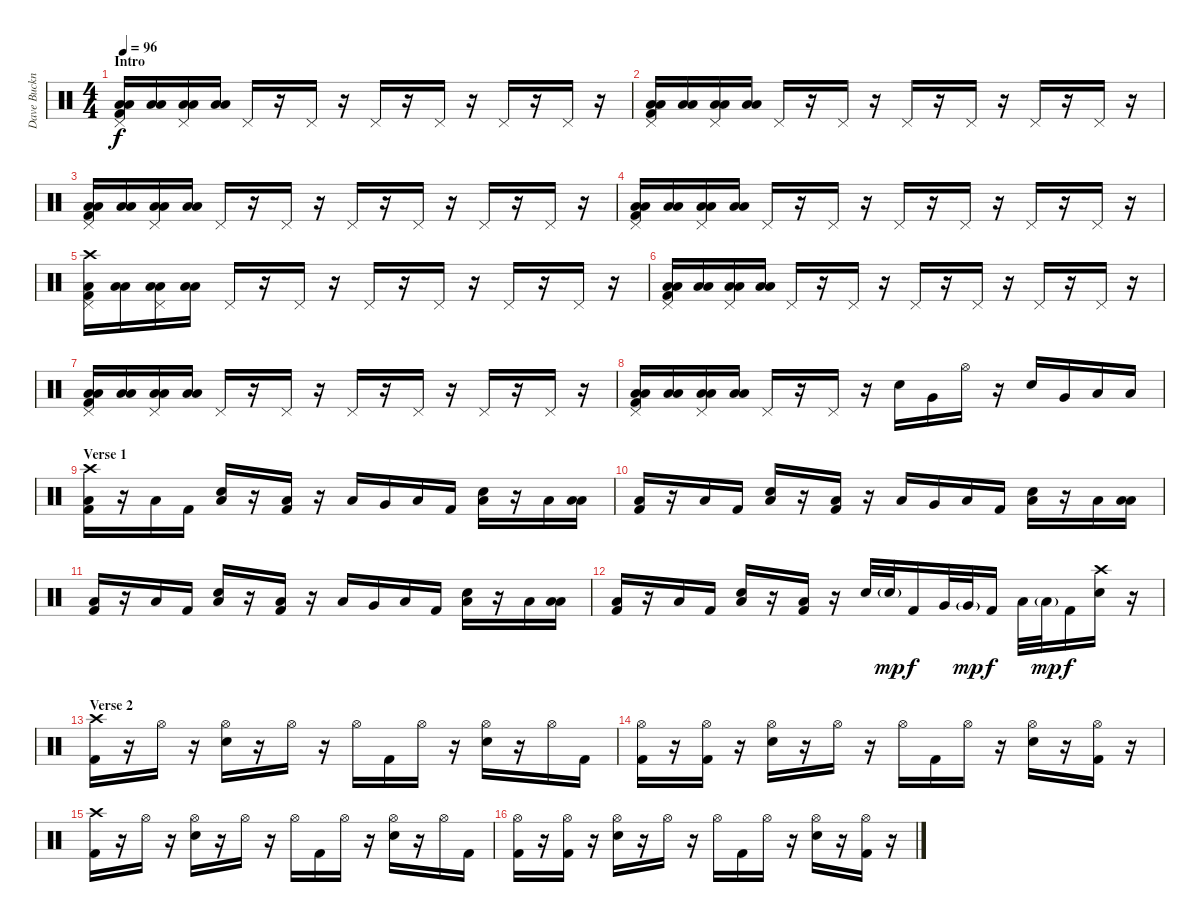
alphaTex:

\track ("Dave Buckner" "Dave Buckn") {instrument percussion}
\staff {score}
\articulation defaults
\ts (4 4)
\section ("" "Intro")
\tempo 96
\clef neutral
\ks c
("Low Tom (hit)" "Pedal Hi-Hat (hit)" "Low Floor Tom (hit)" "Kick (hit) 2").16{dy f} ("Low Tom (hit)" "Low Floor Tom (hit)").16 ("Low Tom (hit)" "Pedal Hi-Hat (hit)" "Low Floor Tom (hit)").16 ("Low Tom (hit)" "Low Floor Tom (hit)").16 "Pedal Hi-Hat (hit)".16 r.16 "Pedal Hi-Hat (hit)".16 r.16 "Pedal Hi-Hat (hit)".16 r.16 "Pedal Hi-Hat (hit)".16 r.16 "Pedal Hi-Hat (hit)".16 r.16 "Pedal Hi-Hat (hit)".16 r.16 |
("Low Tom (hit)" "Pedal Hi-Hat (hit)" "Low Floor Tom (hit)" "Kick (hit) 2").16 ("Low Tom (hit)" "Low Floor Tom (hit)").16 ("Low Tom (hit)" "Pedal Hi-Hat (hit)" "Low Floor Tom (hit)").16 ("Low Tom (hit)" "Low Floor Tom (hit)").16 "Pedal Hi-Hat (hit)".16 r.16 "Pedal Hi-Hat (hit)".16 r.16 "Pedal Hi-Hat (hit)".16 r.16 "Pedal Hi-Hat (hit)".16 r.16 "Pedal Hi-Hat (hit)".16 r.16 "Pedal Hi-Hat (hit)".16 r.16 |
("Low Tom (hit)" "Pedal Hi-Hat (hit)" "Low Floor Tom (hit)" "Kick (hit) 2").16 ("Low Tom (hit)" "Low Floor Tom (hit)").16 ("Low Tom (hit)" "Pedal Hi-Hat (hit)" "Low Floor Tom (hit)").16 ("Low Tom (hit)" "Low Floor Tom (hit)").16 "Pedal Hi-Hat (hit)".16 r.16 "Pedal Hi-Hat (hit)".16 r.16 "Pedal Hi-Hat (hit)".16 r.16 "Pedal Hi-Hat (hit)".16 r.16 "Pedal Hi-Hat (hit)".16 r.16 "Pedal Hi-Hat (hit)".16 r.16 |
("Low Tom (hit)" "Pedal Hi-Hat (hit)" "Low Floor Tom (hit)" "Kick (hit) 2").16 ("Low Tom (hit)" "Low Floor Tom (hit)").16 ("Low Tom (hit)" "Pedal Hi-Hat (hit)" "Low Floor Tom (hit)").16 ("Low Tom (hit)" "Low Floor Tom (hit)").16 "Pedal Hi-Hat (hit)".16 r.16 "Pedal Hi-Hat (hit)".16 r.16 "Pedal Hi-Hat (hit)".16 r.16 "Pedal Hi-Hat (hit)".16 r.16 "Pedal Hi-Hat (hit)".16 r.16 "Pedal Hi-Hat (hit)".16 r.16 |
("Crash high (hit)" "Pedal Hi-Hat (hit)" "Low Floor Tom (hit)" "Kick (hit) 2").16 ("Low Tom (hit)" "Low Floor Tom (hit)").16 ("Low Tom (hit)" "Pedal Hi-Hat (hit)" "Low Floor Tom (hit)").16 ("Low Tom (hit)" "Low Floor Tom (hit)").16 "Pedal Hi-Hat (hit)".16 r.16 "Pedal Hi-Hat (hit)".16 r.16 "Pedal Hi-Hat (hit)".16 r.16 "Pedal Hi-Hat (hit)".16 r.16 "Pedal Hi-Hat (hit)".16 r.16 "Pedal Hi-Hat (hit)".16 r.16 |
("Low Tom (hit)" "Pedal Hi-Hat (hit)" "Low Floor Tom (hit)" "Kick (hit) 2").16 ("Low Tom (hit)" "Low Floor Tom (hit)").16 ("Low Tom (hit)" "Pedal Hi-Hat (hit)" "Low Floor Tom (hit)").16 ("Low Tom (hit)" "Low Floor Tom (hit)").16 "Pedal Hi-Hat (hit)".16 r.16 "Pedal Hi-Hat (hit)".16 r.16 "Pedal Hi-Hat (hit)".16 r.16 "Pedal Hi-Hat (hit)".16 r.16 "Pedal Hi-Hat (hit)".16 r.16 "Pedal Hi-Hat (hit)".16 r.16 |
("Low Tom (hit)" "Pedal Hi-Hat (hit)" "Low Floor Tom (hit)" "Kick (hit) 2").16 ("Low Tom (hit)" "Low Floor Tom (hit)").16 ("Low Tom (hit)" "Pedal Hi-Hat (hit)" "Low Floor Tom (hit)").16 ("Low Tom (hit)" "Low Floor Tom (hit)").16 "Pedal Hi-Hat (hit)".16 r.16 "Pedal Hi-Hat (hit)".16 r.16 "Pedal Hi-Hat (hit)".16 r.16 "Pedal Hi-Hat (hit)".16 r.16 "Pedal Hi-Hat (hit)".16 r.16 "Pedal Hi-Hat (hit)".16 r.16 |
("Low Tom (hit)" "Pedal Hi-Hat (hit)" "Low Floor Tom (hit)" "Kick (hit) 2").16 ("Low Tom (hit)" "Low Floor Tom (hit)").16 ("Low Tom (hit)" "Pedal Hi-Hat (hit)" "Low Floor Tom (hit)").16 ("Low Tom (hit)" "Low Floor Tom (hit)").16 "Pedal Hi-Hat (hit)".16 r.16 "Pedal Hi-Hat (hit)".16 r.16 "Snare (hit) 2".16 "Very Low Tom (hit)".16 "Hi-Hat (open)".16 r.16 "Snare (hit) 2".16 "Very Low Tom (hit)".16 "Low Tom (hit)".16 "Low Floor Tom (hit)".16 |
\section ("" "Verse 1")
("Crash high (hit)" "Low Floor Tom (hit)" "Kick (hit) 2").16 r.16 "Low Tom (hit)".16 "Kick (hit) 2".16 ("Low Floor Tom (hit)" "Snare (hit) 2").16 r.16 ("Low Floor Tom (hit)" "Kick (hit) 2").16 r.16 "Low Floor Tom (hit)".16 "Very Low Tom (hit)".16 "Low Tom (hit)".16 "Kick (hit) 2".16 ("Low Floor Tom (hit)" "Snare (hit) 2").16 r.16 "Low Floor Tom (hit)".16 ("Low Tom (hit)" "Low Floor Tom (hit)").16 |
("Low Floor Tom (hit)" "Kick (hit) 2").16 r.16 "Low Tom (hit)".16 "Kick (hit) 2".16 ("Low Floor Tom (hit)" "Snare (hit) 2").16 r.16 ("Low Floor Tom (hit)" "Kick (hit) 2").16 r.16 "Low Floor Tom (hit)".16 "Very Low Tom (hit)".16 "Low Tom (hit)".16 "Kick (hit) 2".16 ("Low Floor Tom (hit)" "Snare (hit) 2").16 r.16 "Low Floor Tom (hit)".16 ("Low Tom (hit)" "Low Floor Tom (hit)").16 |
("Low Floor Tom (hit)" "Kick (hit) 2").16 r.16 "Low Tom (hit)".16 "Kick (hit) 2".16 ("Low Floor Tom (hit)" "Snare (hit) 2").16 r.16 ("Low Floor Tom (hit)" "Kick (hit) 2").16 r.16 "Low Floor Tom (hit)".16 "Very Low Tom (hit)".16 "Low Tom (hit)".16 "Kick (hit) 2".16 ("Low Floor Tom (hit)" "Snare (hit) 2").16 r.16 "Low Floor Tom (hit)".16 ("Low Tom (hit)" "Low Floor Tom (hit)").16 |
("Low Floor Tom (hit)" "Kick (hit) 2").16 r.16 "Low Tom (hit)".16 "Kick (hit) 2".16 ("Low Floor Tom (hit)" "Snare (hit) 2").16 r.16 ("Low Floor Tom (hit)" "Kick (hit) 2").16 r.16 "Snare (hit) 2".32 "Snare (hit) 2"{g}.32{dy mp} "Kick (hit) 2".16{dy f} "Very Low Tom (hit)".32 "Very Low Tom (hit)"{g}.32{dy mp} "Kick (hit) 2".16{dy f} "Low Tom (hit)".32 "Low Tom (hit)"{g}.32{dy mp} "Kick (hit) 2".16{dy f} ("Crash high (hit)" "Snare (hit) 2").16 r.16 |
\section ("" "Verse 2")
("Crash high (hit)" "Kick (hit) 2").16 r.16 "Hi-Hat (open)".16 r.16 ("Hi-Hat (open)" "Snare (hit) 2").16 r.16 "Hi-Hat (open)".16 r.16 "Hi-Hat (open)".16 "Kick (hit) 2".16 "Hi-Hat (open)".16 r.16 ("Hi-Hat (open)" "Snare (hit) 2").16 r.16 "Hi-Hat (open)".16 "Kick (hit) 2".16 |
("Hi-Hat (open)" "Kick (hit) 2").16 r.16 ("Hi-Hat (open)" "Kick (hit) 2").16 r.16 ("Hi-Hat (open)" "Snare (hit) 2").16 r.16 "Hi-Hat (open)".16 r.16 "Hi-Hat (open)".16 "Kick (hit) 2".16 "Hi-Hat (open)".16 r.16 ("Hi-Hat (open)" "Snare (hit) 2").16 r.16 ("Hi-Hat (open)" "Kick (hit) 2").16 r.16 |
("Crash high (hit)" "Kick (hit) 2").16 r.16 "Hi-Hat (open)".16 r.16 ("Hi-Hat (open)" "Snare (hit) 2").16 r.16 "Hi-Hat (open)".16 r.16 "Hi-Hat (open)".16 "Kick (hit) 2".16 "Hi-Hat (open)".16 r.16 ("Hi-Hat (open)" "Snare (hit) 2").16 r.16 "Hi-Hat (open)".16 "Kick (hit) 2".16 |
("Hi-Hat (open)" "Kick (hit) 2").16 r.16 ("Hi-Hat (open)" "Kick (hit) 2").16 r.16 ("Hi-Hat (open)" "Snare (hit) 2").16 r.16 "Hi-Hat (open)".16 r.16 "Hi-Hat (open)".16 "Kick (hit) 2".16 "Hi-Hat (open)".16 r.16 ("Hi-Hat (open)" "Snare (hit) 2").16 r.16 ("Hi-Hat (open)" "Kick (hit) 2").16 r.16
